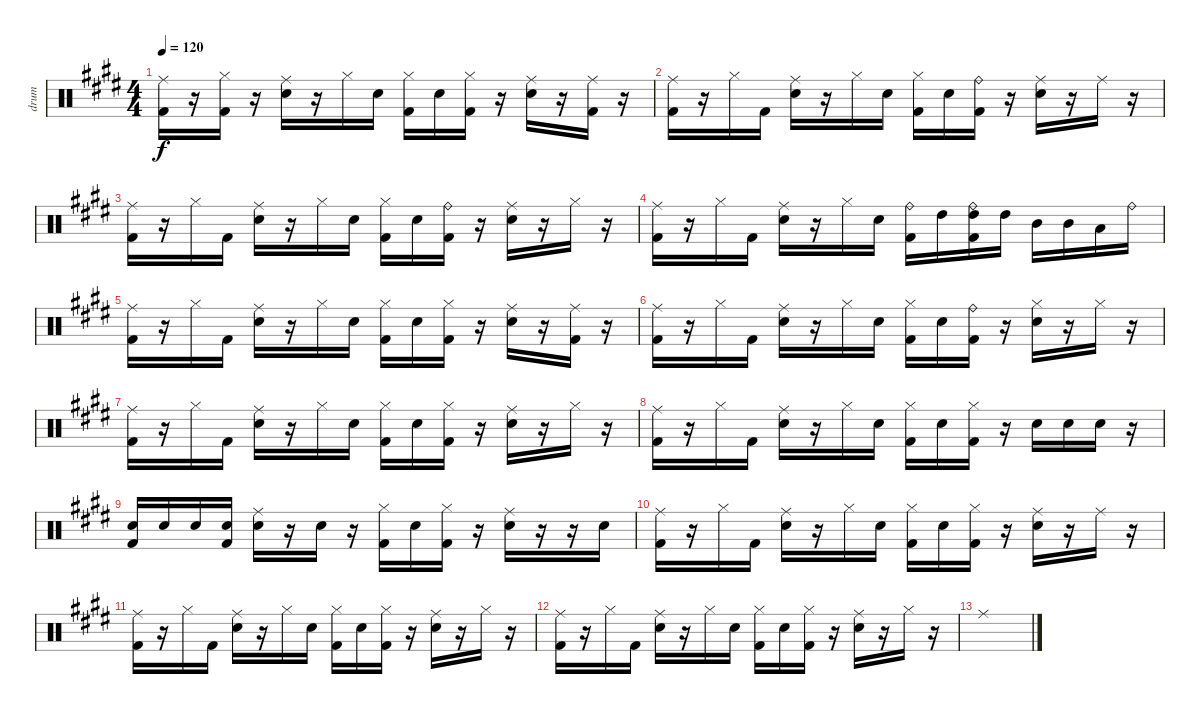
\track ("drum" "drum") {instrument percussion}
\staff {score}
\articulation defaults
\ts (4 4)
\tempo 120
\clef neutral
\ks e
("Kick (hit) 2" "Ride (middle)").16{dy f} r.16 ("Kick (hit) 2" "Hi-Hat (closed)").16 r.16 ("Snare (hit) 2" "Ride (middle)").16 r.16 "Hi-Hat (closed)".16 "Snare (hit) 2".16 ("Kick (hit) 2" "Hi-Hat (closed)").16 "Snare (hit) 2".16 ("Kick (hit) 2" "Hi-Hat (closed)").16 r.16 ("Snare (hit) 2" "Ride (middle)").16 r.16 ("Kick (hit) 2" "Ride (middle)").16 r.16 |
("Kick (hit) 2" "Ride (middle)").16 r.16 "Hi-Hat (closed)".16 "Kick (hit) 2".16 ("Snare (hit) 2" "Ride (middle)").16 r.16 "Hi-Hat (closed)".16 "Snare (hit) 2".16 ("Kick (hit) 2" "Hi-Hat (closed)").16 "Snare (hit) 2".16 ("Kick (hit) 2" "Ride (bell)").16 r.16 ("Snare (hit) 2" "Ride (middle)").16 r.16 "Ride (middle)".16 r.16 |
("Kick (hit) 2" "Ride (middle)").16 r.16 "Hi-Hat (closed)".16 "Kick (hit) 2".16 ("Snare (hit) 2" "Ride (middle)").16 r.16 "Hi-Hat (closed)".16 "Snare (hit) 2".16 ("Kick (hit) 2" "Hi-Hat (closed)").16 "Snare (hit) 2".16 ("Kick (hit) 2" "Ride (bell)").16 r.16 ("Snare (hit) 2" "Ride (middle)").16 r.16 "Hi-Hat (closed)".16 r.16 |
("Kick (hit) 2" "Ride (middle)").16 r.16 "Hi-Hat (closed)".16 "Kick (hit) 2".16 ("Snare (hit) 2" "Ride (middle)").16 r.16 "Hi-Hat (closed)".16 "Snare (hit) 2".16 ("Kick (hit) 2" "Ride (bell)").16 "High Tom (hit)".16 ("Kick (hit) 2" "High Tom (hit)" "Ride (bell)").16 "High Tom (hit)".16 "Mid Tom (hit)".16 "Mid Tom (hit)".16 "Low Tom (hit)".16 "Ride (bell)".16 |
("Kick (hit) 2" "Ride (middle)").16 r.16 "Hi-Hat (closed)".16 "Kick (hit) 2".16 ("Snare (hit) 2" "Ride (middle)").16 r.16 "Hi-Hat (closed)".16 "Snare (hit) 2".16 ("Kick (hit) 2" "Hi-Hat (closed)").16 "Snare (hit) 2".16 ("Kick (hit) 2" "Hi-Hat (closed)").16 r.16 ("Snare (hit) 2" "Ride (middle)").16 r.16 ("Kick (hit) 2" "Ride (middle)").16 r.16 |
("Kick (hit) 2" "Ride (middle)").16 r.16 "Hi-Hat (closed)".16 "Kick (hit) 2".16 ("Snare (hit) 2" "Ride (middle)").16 r.16 "Hi-Hat (closed)".16 "Snare (hit) 2".16 ("Kick (hit) 2" "Hi-Hat (closed)").16 "Snare (hit) 2".16 ("Kick (hit) 2" "Ride (bell)").16 r.16 ("Snare (hit) 2" "Hi-Hat (closed)").16 r.16 "Hi-Hat (closed)".16 r.16 |
("Kick (hit) 2" "Ride (middle)").16 r.16 "Hi-Hat (closed)".16 "Kick (hit) 2".16 ("Snare (hit) 2" "Ride (middle)").16 r.16 "Hi-Hat (closed)".16 "Snare (hit) 2".16 ("Kick (hit) 2" "Hi-Hat (closed)").16 "Snare (hit) 2".16 ("Kick (hit) 2" "Hi-Hat (closed)").16 r.16 ("Snare (hit) 2" "Ride (middle)").16 r.16 "Hi-Hat (closed)".16 r.16 |
("Kick (hit) 2" "Ride (middle)").16 r.16 "Hi-Hat (closed)".16 "Kick (hit) 2".16 ("Snare (hit) 2" "Ride (middle)").16 r.16 "Hi-Hat (closed)".16 "Snare (hit) 2".16 ("Kick (hit) 2" "Hi-Hat (closed)").16 "Snare (hit) 2".16 ("Kick (hit) 2" "Hi-Hat (closed)").16 r.16 "Snare (hit) 2".16 "Snare (hit) 2".16 "Snare (hit) 2".16 r.16 |
("Kick (hit) 2" "Snare (hit) 2").16 "Snare (hit) 2".16 "Snare (hit) 2".16 ("Kick (hit) 2" "Snare (hit) 2").16 ("Ride (middle)" "Snare (hit) 2").16 r.16 "Snare (hit) 2".16 r.16 ("Kick (hit) 2" "Hi-Hat (closed)").16 "Snare (hit) 2".16 ("Kick (hit) 2" "Hi-Hat (closed)").16 r.16 ("Ride (middle)" "Snare (hit) 2").16 r.16 r.16 "Snare (hit) 2".16 |
("Kick (hit) 2" "Ride (middle)").16 r.16 "Hi-Hat (closed)".16 "Kick (hit) 2".16 ("Snare (hit) 2" "Ride (middle)").16 r.16 "Hi-Hat (closed)".16 "Snare (hit) 2".16 ("Kick (hit) 2" "Hi-Hat (closed)").16 "Snare (hit) 2".16 ("Kick (hit) 2" "Hi-Hat (closed)").16 r.16 ("Snare (hit) 2" "Ride (middle)").16 r.16 "Ride (middle)".16 r.16 |
("Kick (hit) 2" "Ride (middle)").16 r.16 "Hi-Hat (closed)".16 "Kick (hit) 2".16 ("Snare (hit) 2" "Ride (middle)").16 r.16 "Hi-Hat (closed)".16 "Snare (hit) 2".16 ("Kick (hit) 2" "Hi-Hat (closed)").16 "Snare (hit) 2".16 ("Kick (hit) 2" "Hi-Hat (closed)").16 r.16 ("Snare (hit) 2" "Ride (middle)").16 r.16 "Hi-Hat (closed)".16 r.16 |
("Kick (hit) 2" "Ride (middle)").16 r.16 "Hi-Hat (closed)".16 "Kick (hit) 2".16 ("Snare (hit) 2" "Ride (middle)").16 r.16 "Hi-Hat (closed)".16 "Snare (hit) 2".16 ("Kick (hit) 2" "Hi-Hat (closed)").16 "Snare (hit) 2".16 ("Kick (hit) 2" "Hi-Hat (closed)").16 r.16 ("Snare (hit) 2" "Ride (middle)").16 r.16 "Hi-Hat (closed)".16 r.16 |
"Ride (middle)".1
